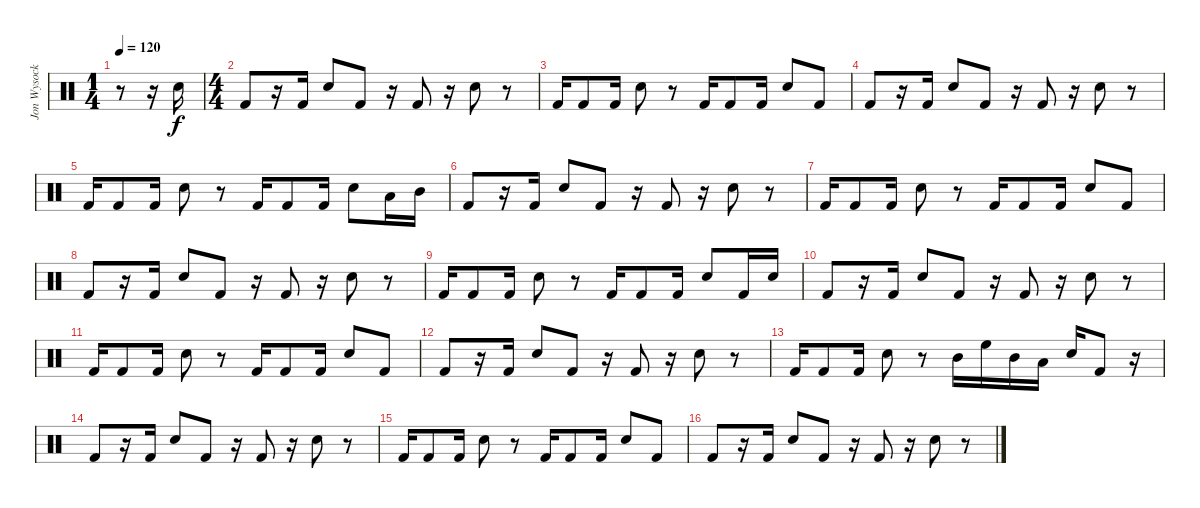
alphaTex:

\track ("Jon Wysocki" "Jon Wysock") {instrument percussion}
\staff {score}
\articulation defaults
\ts (1 4)
\tempo 120
\clef neutral
\ks c
r.8{dy f} r.16 "Electric Snare (hit)".16 |
\ts (4 4)
"Kick (hit) 2".8 r.16 "Kick (hit) 2".16 "Electric Snare (hit)".8 "Kick (hit) 2".8 r.16 "Kick (hit) 2".8 r.16 "Electric Snare (hit)".8 r.8 |
"Kick (hit) 2".16 "Kick (hit) 2".8 "Kick (hit) 2".16 "Electric Snare (hit)".8 r.8 "Kick (hit) 2".16 "Kick (hit) 2".8 "Kick (hit) 2".16 "Electric Snare (hit)".8 "Kick (hit) 2".8 |
"Kick (hit) 2".8 r.16 "Kick (hit) 2".16 "Electric Snare (hit)".8 "Kick (hit) 2".8 r.16 "Kick (hit) 2".8 r.16 "Electric Snare (hit)".8 r.8 |
"Kick (hit) 2".16 "Kick (hit) 2".8 "Kick (hit) 2".16 "Electric Snare (hit)".8 r.8 "Kick (hit) 2".16 "Kick (hit) 2".8 "Kick (hit) 2".16 "Electric Snare (hit)".8 "Low Tom (hit)".16 "Mid Tom (hit)".16 |
"Kick (hit) 2".8 r.16 "Kick (hit) 2".16 "Electric Snare (hit)".8 "Kick (hit) 2".8 r.16 "Kick (hit) 2".8 r.16 "Electric Snare (hit)".8 r.8 |
"Kick (hit) 2".16 "Kick (hit) 2".8 "Kick (hit) 2".16 "Electric Snare (hit)".8 r.8 "Kick (hit) 2".16 "Kick (hit) 2".8 "Kick (hit) 2".16 "Electric Snare (hit)".8 "Kick (hit) 2".8 |
"Kick (hit) 2".8 r.16 "Kick (hit) 2".16 "Electric Snare (hit)".8 "Kick (hit) 2".8 r.16 "Kick (hit) 2".8 r.16 "Electric Snare (hit)".8 r.8 |
"Kick (hit) 2".16 "Kick (hit) 2".8 "Kick (hit) 2".16 "Electric Snare (hit)".8 r.8 "Kick (hit) 2".16 "Kick (hit) 2".8 "Kick (hit) 2".16 "Electric Snare (hit)".8 "Kick (hit) 2".16 "Electric Snare (hit)".16 |
"Kick (hit) 2".8 r.16 "Kick (hit) 2".16 "Electric Snare (hit)".8 "Kick (hit) 2".8 r.16 "Kick (hit) 2".8 r.16 "Electric Snare (hit)".8 r.8 |
"Kick (hit) 2".16 "Kick (hit) 2".8 "Kick (hit) 2".16 "Electric Snare (hit)".8 r.8 "Kick (hit) 2".16 "Kick (hit) 2".8 "Kick (hit) 2".16 "Electric Snare (hit)".8 "Kick (hit) 2".8 |
"Kick (hit) 2".8 r.16 "Kick (hit) 2".16 "Electric Snare (hit)".8 "Kick (hit) 2".8 r.16 "Kick (hit) 2".8 r.16 "Electric Snare (hit)".8 r.8 |
"Kick (hit) 2".16 "Kick (hit) 2".8 "Kick (hit) 2".16 "Electric Snare (hit)".8 r.8 "Mid Tom (hit)".16 "High Floor Tom (hit)".16 "Mid Tom (hit)".16 "Low Tom (hit)".16 "Electric Snare (hit)".16 "Kick (hit) 2".8 r.16 |
"Kick (hit) 2".8 r.16 "Kick (hit) 2".16 "Electric Snare (hit)".8 "Kick (hit) 2".8 r.16 "Kick (hit) 2".8 r.16 "Electric Snare (hit)".8 r.8 |
"Kick (hit) 2".16 "Kick (hit) 2".8 "Kick (hit) 2".16 "Electric Snare (hit)".8 r.8 "Kick (hit) 2".16 "Kick (hit) 2".8 "Kick (hit) 2".16 "Electric Snare (hit)".8 "Kick (hit) 2".8 |
"Kick (hit) 2".8 r.16 "Kick (hit) 2".16 "Electric Snare (hit)".8 "Kick (hit) 2".8 r.16 "Kick (hit) 2".8 r.16 "Electric Snare (hit)".8 r.8
